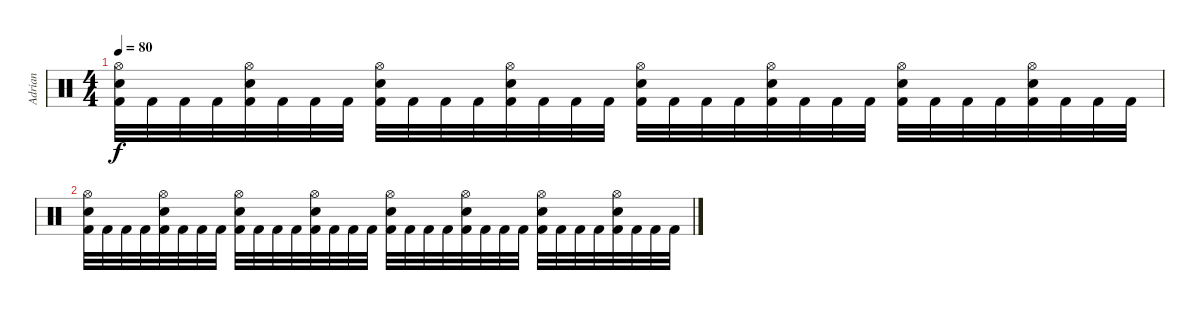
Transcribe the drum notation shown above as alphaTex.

\track ("Adrian" "Adrian") {instrument percussion}
\staff {score}
\articulation defaults
\ts (4 4)
\tempo 80
\clef neutral
\ks c
("Kick (hit) 2" "Snare (hit) 2" "Hi-Hat (open)").32{dy f} "Kick (hit) 2".32 "Kick (hit) 2".32 "Kick (hit) 2".32 ("Kick (hit) 2" "Snare (hit) 2" "Hi-Hat (open)").32 "Kick (hit) 2".32 "Kick (hit) 2".32 "Kick (hit) 2".32 ("Kick (hit) 2" "Snare (hit) 2" "Hi-Hat (open)").32 "Kick (hit) 2".32 "Kick (hit) 2".32 "Kick (hit) 2".32 ("Kick (hit) 2" "Snare (hit) 2" "Hi-Hat (open)").32 "Kick (hit) 2".32 "Kick (hit) 2".32 "Kick (hit) 2".32 ("Kick (hit) 2" "Snare (hit) 2" "Hi-Hat (open)").32 "Kick (hit) 2".32 "Kick (hit) 2".32 "Kick (hit) 2".32 ("Kick (hit) 2" "Snare (hit) 2" "Hi-Hat (open)").32 "Kick (hit) 2".32 "Kick (hit) 2".32 "Kick (hit) 2".32 ("Kick (hit) 2" "Snare (hit) 2" "Hi-Hat (open)").32 "Kick (hit) 2".32 "Kick (hit) 2".32 "Kick (hit) 2".32 ("Kick (hit) 2" "Snare (hit) 2" "Hi-Hat (open)").32 "Kick (hit) 2".32 "Kick (hit) 2".32 "Kick (hit) 2".32 |
("Kick (hit) 2" "Snare (hit) 2" "Hi-Hat (open)").32 "Kick (hit) 2".32 "Kick (hit) 2".32 "Kick (hit) 2".32 ("Kick (hit) 2" "Snare (hit) 2" "Hi-Hat (open)").32 "Kick (hit) 2".32 "Kick (hit) 2".32 "Kick (hit) 2".32 ("Kick (hit) 2" "Snare (hit) 2" "Hi-Hat (open)").32 "Kick (hit) 2".32 "Kick (hit) 2".32 "Kick (hit) 2".32 ("Kick (hit) 2" "Snare (hit) 2" "Hi-Hat (open)").32 "Kick (hit) 2".32 "Kick (hit) 2".32 "Kick (hit) 2".32 ("Kick (hit) 2" "Snare (hit) 2" "Hi-Hat (open)").32 "Kick (hit) 2".32 "Kick (hit) 2".32 "Kick (hit) 2".32 ("Kick (hit) 2" "Snare (hit) 2" "Hi-Hat (open)").32 "Kick (hit) 2".32 "Kick (hit) 2".32 "Kick (hit) 2".32 ("Kick (hit) 2" "Snare (hit) 2" "Hi-Hat (open)").32 "Kick (hit) 2".32 "Kick (hit) 2".32 "Kick (hit) 2".32 ("Kick (hit) 2" "Snare (hit) 2" "Hi-Hat (open)").32 "Kick (hit) 2".32 "Kick (hit) 2".32 "Kick (hit) 2".32
